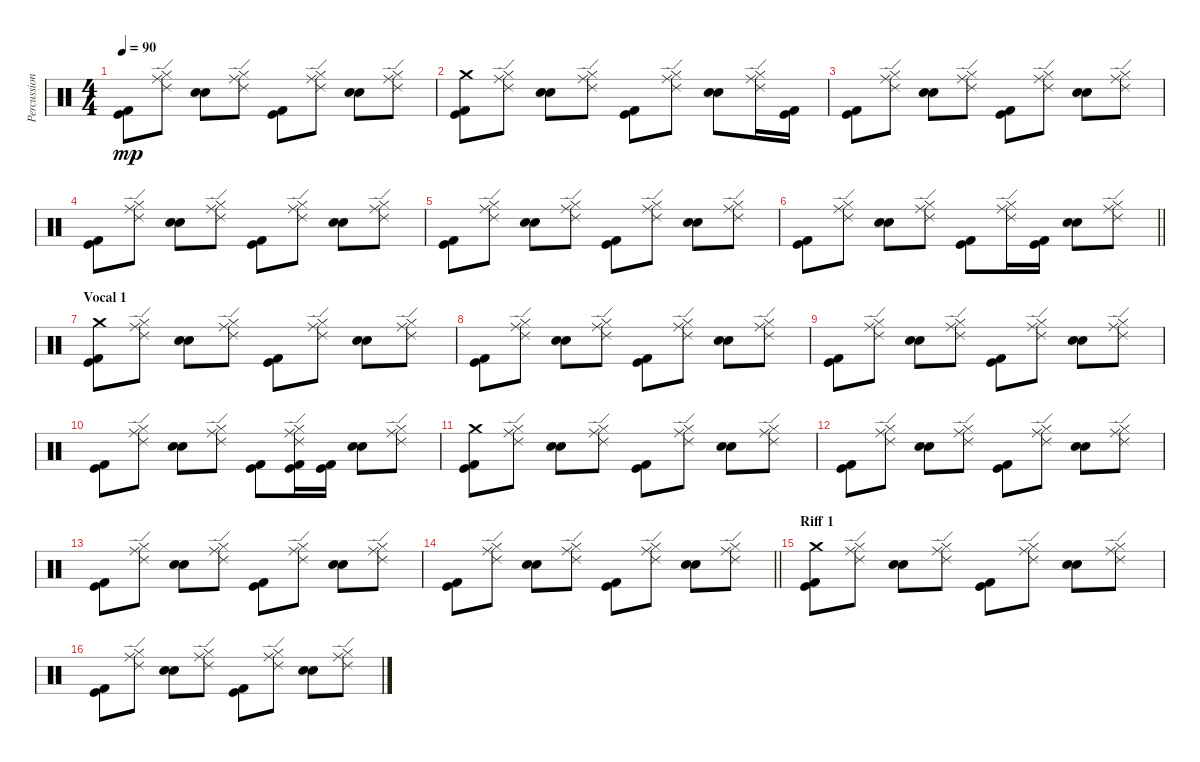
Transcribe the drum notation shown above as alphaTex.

\track ("Percussion" "Percussion") {instrument percussion}
\staff {score}
\articulation defaults
\ts (4 4)
\tempo 90
\clef neutral
\ks c
("Kick (hit)" "Kick (hit) 2").8{dy mp} ("Ride (edge) 2" "Ride (middle)" "Hi-Hat (closed)").8 ("Snare (hit) 2" "Electric Snare (hit)").8 ("Ride (edge) 2" "Ride (middle)" "Hi-Hat (closed)").8 ("Kick (hit)" "Kick (hit) 2").8 ("Ride (edge) 2" "Ride (middle)" "Hi-Hat (closed)").8 ("Snare (hit) 2" "Electric Snare (hit)").8 ("Ride (edge) 2" "Ride (middle)" "Hi-Hat (closed)").8 |
("Crash medium (hit)" "Kick (hit)" "Kick (hit) 2").8 ("Ride (edge) 2" "Ride (middle)" "Hi-Hat (closed)").8 ("Snare (hit) 2" "Electric Snare (hit)").8 ("Ride (edge) 2" "Ride (middle)" "Hi-Hat (closed)").8 ("Kick (hit)" "Kick (hit) 2").8 ("Ride (edge) 2" "Ride (middle)" "Hi-Hat (closed)").8 ("Snare (hit) 2" "Electric Snare (hit)").8 ("Ride (edge) 2" "Ride (middle)" "Hi-Hat (closed)").16 ("Kick (hit)" "Kick (hit) 2").16 |
("Kick (hit)" "Kick (hit) 2").8 ("Ride (edge) 2" "Ride (middle)" "Hi-Hat (closed)").8 ("Snare (hit) 2" "Electric Snare (hit)").8 ("Ride (edge) 2" "Ride (middle)" "Hi-Hat (closed)").8 ("Kick (hit)" "Kick (hit) 2").8 ("Ride (edge) 2" "Ride (middle)" "Hi-Hat (closed)").8 ("Snare (hit) 2" "Electric Snare (hit)").8 ("Ride (edge) 2" "Ride (middle)" "Hi-Hat (closed)").8 |
("Kick (hit)" "Kick (hit) 2").8 ("Ride (edge) 2" "Ride (middle)" "Hi-Hat (closed)").8 ("Snare (hit) 2" "Electric Snare (hit)").8 ("Ride (edge) 2" "Ride (middle)" "Hi-Hat (closed)").8 ("Kick (hit)" "Kick (hit) 2").8 ("Ride (edge) 2" "Ride (middle)" "Hi-Hat (closed)").8 ("Snare (hit) 2" "Electric Snare (hit)").8 ("Ride (edge) 2" "Ride (middle)" "Hi-Hat (closed)").8 |
("Kick (hit)" "Kick (hit) 2").8 ("Ride (edge) 2" "Ride (middle)" "Hi-Hat (closed)").8 ("Snare (hit) 2" "Electric Snare (hit)").8 ("Ride (edge) 2" "Ride (middle)" "Hi-Hat (closed)").8 ("Kick (hit)" "Kick (hit) 2").8 ("Ride (edge) 2" "Ride (middle)" "Hi-Hat (closed)").8 ("Snare (hit) 2" "Electric Snare (hit)").8 ("Ride (edge) 2" "Ride (middle)" "Hi-Hat (closed)").8 |
\barLineRight lightlight
("Kick (hit)" "Kick (hit) 2").8 ("Ride (edge) 2" "Ride (middle)" "Hi-Hat (closed)").8 ("Snare (hit) 2" "Electric Snare (hit)").8 ("Ride (edge) 2" "Ride (middle)" "Hi-Hat (closed)").8 ("Kick (hit)" "Kick (hit) 2").8 ("Ride (edge) 2" "Ride (middle)" "Hi-Hat (closed)").16 ("Kick (hit)" "Kick (hit) 2").16 ("Snare (hit) 2" "Electric Snare (hit)").8 ("Ride (edge) 2" "Ride (middle)" "Hi-Hat (closed)").8 |
\section ("" "Vocal 1")
("Crash medium (hit)" "Kick (hit)" "Kick (hit) 2").8 ("Ride (edge) 2" "Ride (middle)" "Hi-Hat (closed)").8 ("Snare (hit) 2" "Electric Snare (hit)").8 ("Ride (edge) 2" "Ride (middle)" "Hi-Hat (closed)").8 ("Kick (hit)" "Kick (hit) 2").8 ("Ride (edge) 2" "Ride (middle)" "Hi-Hat (closed)").8 ("Snare (hit) 2" "Electric Snare (hit)").8 ("Ride (edge) 2" "Ride (middle)" "Hi-Hat (closed)").8 |
("Kick (hit)" "Kick (hit) 2").8 ("Ride (edge) 2" "Ride (middle)" "Hi-Hat (closed)").8 ("Snare (hit) 2" "Electric Snare (hit)").8 ("Ride (edge) 2" "Ride (middle)" "Hi-Hat (closed)").8 ("Kick (hit)" "Kick (hit) 2").8 ("Ride (edge) 2" "Ride (middle)" "Hi-Hat (closed)").8 ("Snare (hit) 2" "Electric Snare (hit)").8 ("Ride (edge) 2" "Ride (middle)" "Hi-Hat (closed)").8 |
("Kick (hit)" "Kick (hit) 2").8 ("Ride (edge) 2" "Ride (middle)" "Hi-Hat (closed)").8 ("Snare (hit) 2" "Electric Snare (hit)").8 ("Ride (edge) 2" "Ride (middle)" "Hi-Hat (closed)").8 ("Kick (hit)" "Kick (hit) 2").8 ("Ride (edge) 2" "Ride (middle)" "Hi-Hat (closed)").8 ("Snare (hit) 2" "Electric Snare (hit)").8 ("Ride (edge) 2" "Ride (middle)" "Hi-Hat (closed)").8 |
("Kick (hit)" "Kick (hit) 2").8 ("Ride (edge) 2" "Ride (middle)" "Hi-Hat (closed)").8 ("Snare (hit) 2" "Electric Snare (hit)").8 ("Ride (edge) 2" "Ride (middle)" "Hi-Hat (closed)").8 ("Kick (hit)" "Kick (hit) 2").8 ("Ride (edge) 2" "Ride (middle)" "Hi-Hat (closed)" "Kick (hit)" "Kick (hit) 2").16 ("Kick (hit)" "Kick (hit) 2").16 ("Snare (hit) 2" "Electric Snare (hit)").8 ("Ride (edge) 2" "Ride (middle)" "Hi-Hat (closed)").8 |
("Crash medium (hit)" "Kick (hit)" "Kick (hit) 2").8 ("Ride (edge) 2" "Ride (middle)" "Hi-Hat (closed)").8 ("Snare (hit) 2" "Electric Snare (hit)").8 ("Ride (edge) 2" "Ride (middle)" "Hi-Hat (closed)").8 ("Kick (hit)" "Kick (hit) 2").8 ("Ride (edge) 2" "Ride (middle)" "Hi-Hat (closed)").8 ("Snare (hit) 2" "Electric Snare (hit)").8 ("Ride (edge) 2" "Ride (middle)" "Hi-Hat (closed)").8 |
("Kick (hit)" "Kick (hit) 2").8 ("Ride (edge) 2" "Ride (middle)" "Hi-Hat (closed)").8 ("Snare (hit) 2" "Electric Snare (hit)").8 ("Ride (edge) 2" "Ride (middle)" "Hi-Hat (closed)").8 ("Kick (hit)" "Kick (hit) 2").8 ("Ride (edge) 2" "Ride (middle)" "Hi-Hat (closed)").8 ("Snare (hit) 2" "Electric Snare (hit)").8 ("Ride (edge) 2" "Ride (middle)" "Hi-Hat (closed)").8 |
("Kick (hit)" "Kick (hit) 2").8 ("Ride (edge) 2" "Ride (middle)" "Hi-Hat (closed)").8 ("Snare (hit) 2" "Electric Snare (hit)").8 ("Ride (edge) 2" "Ride (middle)" "Hi-Hat (closed)").8 ("Kick (hit)" "Kick (hit) 2").8 ("Ride (edge) 2" "Ride (middle)" "Hi-Hat (closed)").8 ("Snare (hit) 2" "Electric Snare (hit)").8 ("Ride (edge) 2" "Ride (middle)" "Hi-Hat (closed)").8 |
\barLineRight lightlight
("Kick (hit)" "Kick (hit) 2").8 ("Ride (edge) 2" "Ride (middle)" "Hi-Hat (closed)").8 ("Snare (hit) 2" "Electric Snare (hit)").8 ("Ride (edge) 2" "Ride (middle)" "Hi-Hat (closed)").8 ("Kick (hit)" "Kick (hit) 2").8 ("Ride (edge) 2" "Ride (middle)" "Hi-Hat (closed)").8 ("Snare (hit) 2" "Electric Snare (hit)").8 ("Ride (edge) 2" "Ride (middle)" "Hi-Hat (closed)").8 |
\section ("" "Riff 1")
("Crash medium (hit)" "Kick (hit)" "Kick (hit) 2").8 ("Ride (edge) 2" "Ride (middle)" "Hi-Hat (closed)").8 ("Snare (hit) 2" "Electric Snare (hit)").8 ("Ride (edge) 2" "Ride (middle)" "Hi-Hat (closed)").8 ("Kick (hit)" "Kick (hit) 2").8 ("Ride (edge) 2" "Ride (middle)" "Hi-Hat (closed)").8 ("Snare (hit) 2" "Electric Snare (hit)").8 ("Ride (edge) 2" "Ride (middle)" "Hi-Hat (closed)").8 |
("Kick (hit)" "Kick (hit) 2").8 ("Ride (edge) 2" "Ride (middle)" "Hi-Hat (closed)").8 ("Snare (hit) 2" "Electric Snare (hit)").8 ("Ride (edge) 2" "Ride (middle)" "Hi-Hat (closed)").8 ("Kick (hit)" "Kick (hit) 2").8 ("Ride (edge) 2" "Ride (middle)" "Hi-Hat (closed)").8 ("Snare (hit) 2" "Electric Snare (hit)").8 ("Ride (edge) 2" "Ride (middle)" "Hi-Hat (closed)").8
